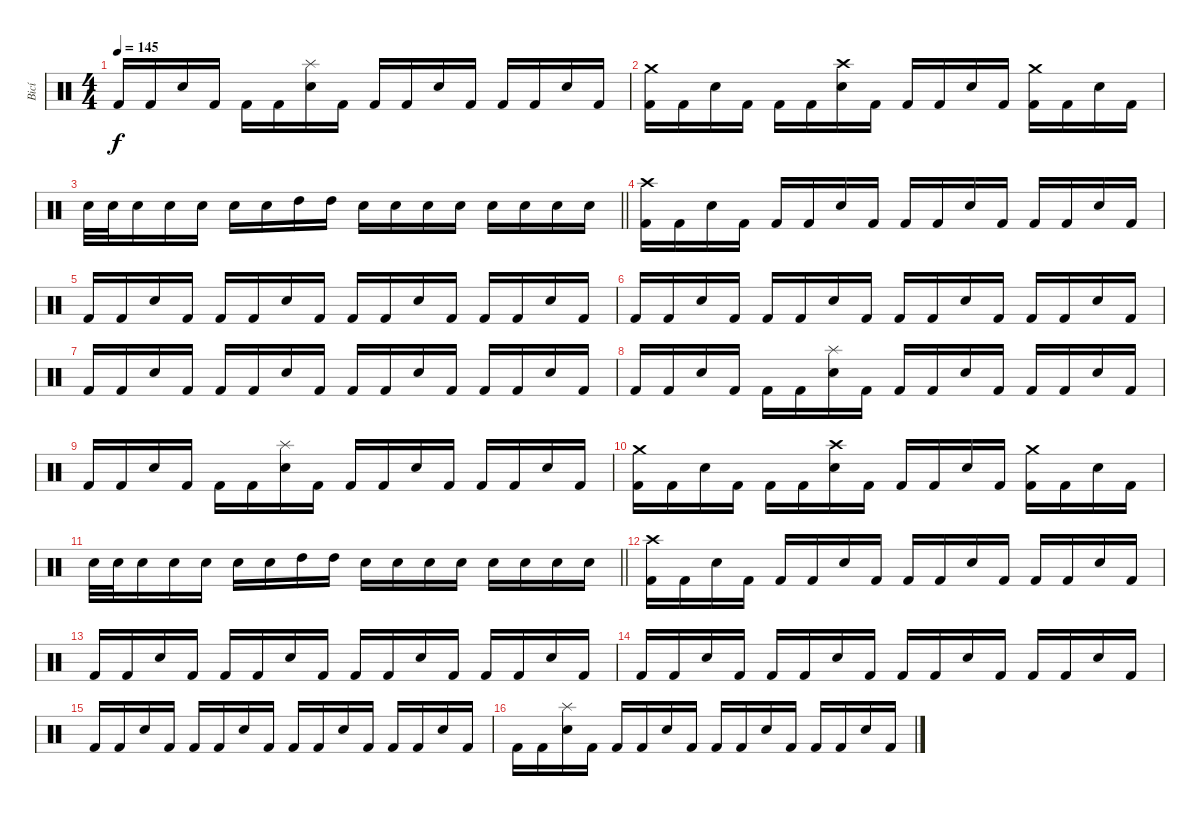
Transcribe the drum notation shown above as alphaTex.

\track ("Bicí" "Bicí") {instrument percussion}
\staff {score}
\articulation defaults
\ts (4 4)
\tempo 145
\clef neutral
\ks c "Kick (hit) 2".16{dy f} "Kick (hit) 2".16 "Electric Snare (hit)".16 "Kick (hit) 2".16 "Kick (hit) 2".16 "Kick (hit) 2".16
("Electric Snare (hit)" "Splash (hit)").16 "Kick (hit) 2".16 "Kick (hit) 2".16 "Kick (hit) 2".16 "Electric Snare (hit)".16 "Kick (hit) 2".16 "Kick (hit) 2".16 "Kick (hit) 2".16 "Electric Snare (hit)".16 "Kick (hit) 2".16 |
("Kick (hit) 2" "Crash medium (hit)").16 "Kick (hit) 2".16 "Electric Snare (hit)".16 "Kick (hit) 2".16 "Kick (hit) 2".16 "Kick (hit) 2".16 ("Electric Snare (hit)" "Crash high (hit)").16 "Kick (hit) 2".16 "Kick (hit) 2".16 "Kick (hit) 2".16 "Electric Snare (hit)".16 "Kick (hit) 2".16 ("Kick (hit) 2" "Crash medium (hit)").16 "Kick (hit) 2".16 "Electric Snare (hit)".16 "Kick (hit) 2".16 |
\barLineRight lightlight "Electric Snare (hit)".32 "Electric Snare (hit)".32 "Electric Snare (hit)".16 "Electric Snare (hit)".16 "Electric Snare (hit)".16 "Electric Snare (hit)".16 "Electric Snare (hit)".16 "High Tom (hit)".16 "High Tom (hit)".16 "Electric Snare (hit)".16 "Electric Snare (hit)".16 "Electric Snare (hit)".16 "Electric Snare (hit)".16 "Electric Snare (hit)".16 "Electric Snare (hit)".16 "Electric Snare (hit)".16 "Electric Snare (hit)".16
|
("Kick (hit) 2" "Crash high (hit)").16 "Kick (hit) 2".16 "Electric Snare (hit)".16 "Kick (hit) 2".16 "Kick (hit) 2".16 "Kick (hit) 2".16 "Electric Snare (hit)".16 "Kick (hit) 2".16 "Kick (hit) 2".16 "Kick (hit) 2".16 "Electric Snare (hit)".16 "Kick (hit) 2".16 "Kick (hit) 2".16 "Kick (hit) 2".16 "Electric Snare (hit)".16 "Kick (hit) 2".16 |
"Kick (hit) 2".16 "Kick (hit) 2".16 "Electric Snare (hit)".16 "Kick (hit) 2".16 "Kick (hit) 2".16 "Kick (hit) 2".16 "Electric Snare (hit)".16 "Kick (hit) 2".16 "Kick (hit) 2".16 "Kick (hit) 2".16 "Electric Snare (hit)".16 "Kick (hit) 2".16 "Kick (hit) 2".16 "Kick (hit) 2".16 "Electric Snare (hit)".16 "Kick (hit) 2".16 |
"Kick (hit) 2".16 "Kick (hit) 2".16 "Electric Snare (hit)".16 "Kick (hit) 2".16 "Kick (hit) 2".16 "Kick (hit) 2".16 "Electric Snare (hit)".16 "Kick (hit) 2".16 "Kick (hit) 2".16 "Kick (hit) 2".16 "Electric Snare (hit)".16 "Kick (hit) 2".16 "Kick (hit) 2".16 "Kick (hit) 2".16 "Electric Snare (hit)".16 "Kick (hit) 2".16 |
"Kick (hit) 2".16 "Kick (hit) 2".16 "Electric Snare (hit)".16 "Kick (hit) 2".16 "Kick (hit) 2".16 "Kick (hit) 2".16 "Electric Snare (hit)".16 "Kick (hit) 2".16 "Kick (hit) 2".16 "Kick (hit) 2".16 "Electric Snare (hit)".16 "Kick (hit) 2".16 "Kick (hit) 2".16 "Kick (hit) 2".16 "Electric Snare (hit)".16 "Kick (hit) 2".16 |
"Kick (hit) 2".16 "Kick (hit) 2".16 "Electric Snare (hit)".16 "Kick (hit) 2".16 "Kick (hit) 2".16 "Kick (hit) 2".16 ("Electric Snare (hit)" "Splash (hit)").16 "Kick (hit) 2".16 "Kick (hit) 2".16 "Kick (hit) 2".16 "Electric Snare (hit)".16 "Kick (hit) 2".16 "Kick (hit) 2".16 "Kick (hit) 2".16 "Electric Snare (hit)".16 "Kick (hit) 2".16 |
"Kick (hit) 2".16 "Kick (hit) 2".16 "Electric Snare (hit)".16 "Kick (hit) 2".16 "Kick (hit) 2".16 "Kick (hit) 2".16 ("Electric Snare (hit)" "Splash (hit)").16 "Kick (hit) 2".16 "Kick (hit) 2".16 "Kick (hit) 2".16 "Electric Snare (hit)".16 "Kick (hit) 2".16 "Kick (hit) 2".16 "Kick (hit) 2".16 "Electric Snare (hit)".16 "Kick (hit) 2".16 |
("Kick (hit) 2" "Crash medium (hit)").16 "Kick (hit) 2".16 "Electric Snare (hit)".16 "Kick (hit) 2".16 "Kick (hit) 2".16 "Kick (hit) 2".16 ("Electric Snare (hit)" "Crash high (hit)").16 "Kick (hit) 2".16 "Kick (hit) 2".16 "Kick (hit) 2".16 "Electric Snare (hit)".16 "Kick (hit) 2".16 ("Kick (hit) 2" "Crash medium (hit)").16 "Kick (hit) 2".16 "Electric Snare (hit)".16 "Kick (hit) 2".16 |
\barLineRight lightlight "Electric Snare (hit)".32 "Electric Snare (hit)".32 "Electric Snare (hit)".16 "Electric Snare (hit)".16 "Electric Snare (hit)".16 "Electric Snare (hit)".16 "Electric Snare (hit)".16 "High Tom (hit)".16 "High Tom (hit)".16 "Electric Snare (hit)".16 "Electric Snare (hit)".16 "Electric Snare (hit)".16 "Electric Snare (hit)".16 "Electric Snare (hit)".16 "Electric Snare (hit)".16 "Electric Snare (hit)".16 "Electric Snare (hit)".16
|
("Kick (hit) 2" "Crash high (hit)").16 "Kick (hit) 2".16 "Electric Snare (hit)".16 "Kick (hit) 2".16 "Kick (hit) 2".16 "Kick (hit) 2".16 "Electric Snare (hit)".16 "Kick (hit) 2".16 "Kick (hit) 2".16 "Kick (hit) 2".16 "Electric Snare (hit)".16 "Kick (hit) 2".16 "Kick (hit) 2".16 "Kick (hit) 2".16 "Electric Snare (hit)".16 "Kick (hit) 2".16 |
"Kick (hit) 2".16 "Kick (hit) 2".16 "Electric Snare (hit)".16 "Kick (hit) 2".16 "Kick (hit) 2".16 "Kick (hit) 2".16 "Electric Snare (hit)".16 "Kick (hit) 2".16 "Kick (hit) 2".16 "Kick (hit) 2".16 "Electric Snare (hit)".16 "Kick (hit) 2".16 "Kick (hit) 2".16 "Kick (hit) 2".16 "Electric Snare (hit)".16 "Kick (hit) 2".16 |
"Kick (hit) 2".16 "Kick (hit) 2".16 "Electric Snare (hit)".16 "Kick (hit) 2".16 "Kick (hit) 2".16 "Kick (hit) 2".16 "Electric Snare (hit)".16 "Kick (hit) 2".16 "Kick (hit) 2".16 "Kick (hit) 2".16 "Electric Snare (hit)".16 "Kick (hit) 2".16 "Kick (hit) 2".16 "Kick (hit) 2".16 "Electric Snare (hit)".16 "Kick (hit) 2".16 |
"Kick (hit) 2".16 "Kick (hit) 2".16 "Electric Snare (hit)".16 "Kick (hit) 2".16 "Kick (hit) 2".16 "Kick (hit) 2".16 "Electric Snare (hit)".16 "Kick (hit) 2".16 "Kick (hit) 2".16 "Kick (hit) 2".16 "Electric Snare (hit)".16 "Kick (hit) 2".16 "Kick (hit) 2".16 "Kick (hit) 2".16 "Electric Snare (hit)".16 "Kick (hit) 2".16 |
"Kick (hit) 2".16 "Kick (hit) 2".16 ("Electric Snare (hit)" "Splash (hit)").16 "Kick (hit) 2".16 "Kick (hit) 2".16 "Kick (hit) 2".16 "Electric Snare (hit)".16 "Kick (hit) 2".16 "Kick (hit) 2".16 "Kick (hit) 2".16 "Electric Snare (hit)".16 "Kick (hit) 2".16 "Kick (hit) 2".16 "Kick (hit) 2".16 "Electric Snare (hit)".16 "Kick (hit) 2".16
